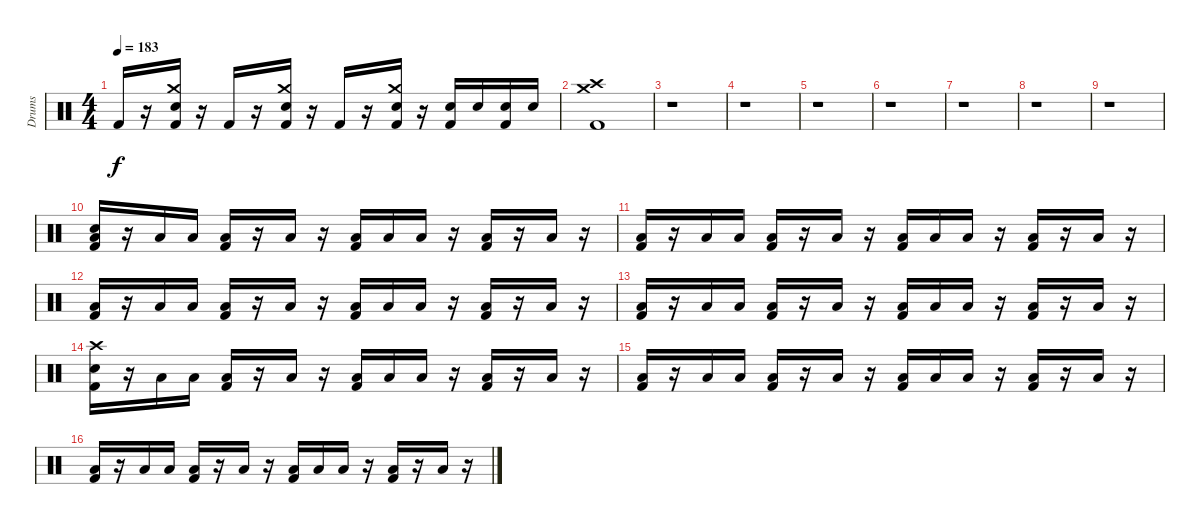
\track ("Drums" "Drums") {instrument percussion}
\staff {score}
\articulation defaults
\ts (4 4)
\tempo 183
\clef neutral
\ks c "Kick (hit) 2".16{dy f}
r.16 ("Crash medium (hit)" "Electric Snare (hit)" "Kick (hit) 2").16 r.16 "Kick (hit) 2".16 r.16 ("Crash medium (hit)" "Electric Snare (hit)" "Kick (hit) 2").16 r.16 "Kick (hit) 2".16 r.16 ("Crash medium (hit)" "Electric Snare (hit)" "Kick (hit) 2").16 r.16 ("Electric Snare (hit)" "Kick (hit) 2").16 "Electric Snare (hit)".16 ("Electric Snare (hit)" "Kick (hit) 2").16 "Electric Snare (hit)".16 |
("Crash high (hit)" "Crash medium (hit)" "Kick (hit) 2").1 |
r.1 |
r.1 |
r.1 |
r.1 |
r.1 |
r.1 |
r.1 |
("Electric Snare (hit)" "Low Floor Tom (hit)" "Kick (hit) 2").16 r.16 "Low Floor Tom (hit)".16 "Low Floor Tom (hit)".16 ("Low Floor Tom (hit)" "Kick (hit) 2").16 r.16 "Low Floor Tom (hit)".16 r.16 ("Low Floor Tom (hit)" "Kick (hit) 2").16 "Low Floor Tom (hit)".16 "Low Floor Tom (hit)".16 r.16 ("Low Floor Tom (hit)" "Kick (hit) 2").16 r.16 "Low Floor Tom (hit)".16 r.16 |
("Low Floor Tom (hit)" "Kick (hit) 2").16 r.16 "Low Floor Tom (hit)".16 "Low Floor Tom (hit)".16 ("Low Floor Tom (hit)" "Kick (hit) 2").16 r.16 "Low Floor Tom (hit)".16 r.16 ("Low Floor Tom (hit)" "Kick (hit) 2").16 "Low Floor Tom (hit)".16 "Low Floor Tom (hit)".16 r.16 ("Low Floor Tom (hit)" "Kick (hit) 2").16 r.16 "Low Floor Tom (hit)".16 r.16 |
("Low Floor Tom (hit)" "Kick (hit) 2").16 r.16 "Low Floor Tom (hit)".16 "Low Floor Tom (hit)".16 ("Low Floor Tom (hit)" "Kick (hit) 2").16 r.16 "Low Floor Tom (hit)".16 r.16 ("Low Floor Tom (hit)" "Kick (hit) 2").16 "Low Floor Tom (hit)".16 "Low Floor Tom (hit)".16 r.16 ("Low Floor Tom (hit)" "Kick (hit) 2").16 r.16 "Low Floor Tom (hit)".16 r.16 |
("Low Floor Tom (hit)" "Kick (hit) 2").16 r.16 "Low Floor Tom (hit)".16 "Low Floor Tom (hit)".16 ("Low Floor Tom (hit)" "Kick (hit) 2").16 r.16 "Low Floor Tom (hit)".16 r.16 ("Low Floor Tom (hit)" "Kick (hit) 2").16 "Low Floor Tom (hit)".16 "Low Floor Tom (hit)".16 r.16 ("Low Floor Tom (hit)" "Kick (hit) 2").16 r.16 "Low Floor Tom (hit)".16 r.16 |
("Crash high (hit)" "Electric Snare (hit)" "Kick (hit) 2").16 r.16 "Low Floor Tom (hit)".16 "Low Floor Tom (hit)".16 ("Low Floor Tom (hit)" "Kick (hit) 2").16 r.16 "Low Floor Tom (hit)".16 r.16 ("Low Floor Tom (hit)" "Kick (hit) 2").16 "Low Floor Tom (hit)".16 "Low Floor Tom (hit)".16 r.16 ("Low Floor Tom (hit)" "Kick (hit) 2").16 r.16 "Low Floor Tom (hit)".16 r.16 |
("Low Floor Tom (hit)" "Kick (hit) 2").16 r.16 "Low Floor Tom (hit)".16 "Low Floor Tom (hit)".16 ("Low Floor Tom (hit)" "Kick (hit) 2").16 r.16 "Low Floor Tom (hit)".16 r.16 ("Low Floor Tom (hit)" "Kick (hit) 2").16 "Low Floor Tom (hit)".16 "Low Floor Tom (hit)".16 r.16 ("Low Floor Tom (hit)" "Kick (hit) 2").16 r.16 "Low Floor Tom (hit)".16 r.16 |
("Low Floor Tom (hit)" "Kick (hit) 2").16 r.16 "Low Floor Tom (hit)".16 "Low Floor Tom (hit)".16 ("Low Floor Tom (hit)" "Kick (hit) 2").16 r.16 "Low Floor Tom (hit)".16 r.16 ("Low Floor Tom (hit)" "Kick (hit) 2").16 "Low Floor Tom (hit)".16 "Low Floor Tom (hit)".16 r.16 ("Low Floor Tom (hit)" "Kick (hit) 2").16 r.16 "Low Floor Tom (hit)".16 r.16
